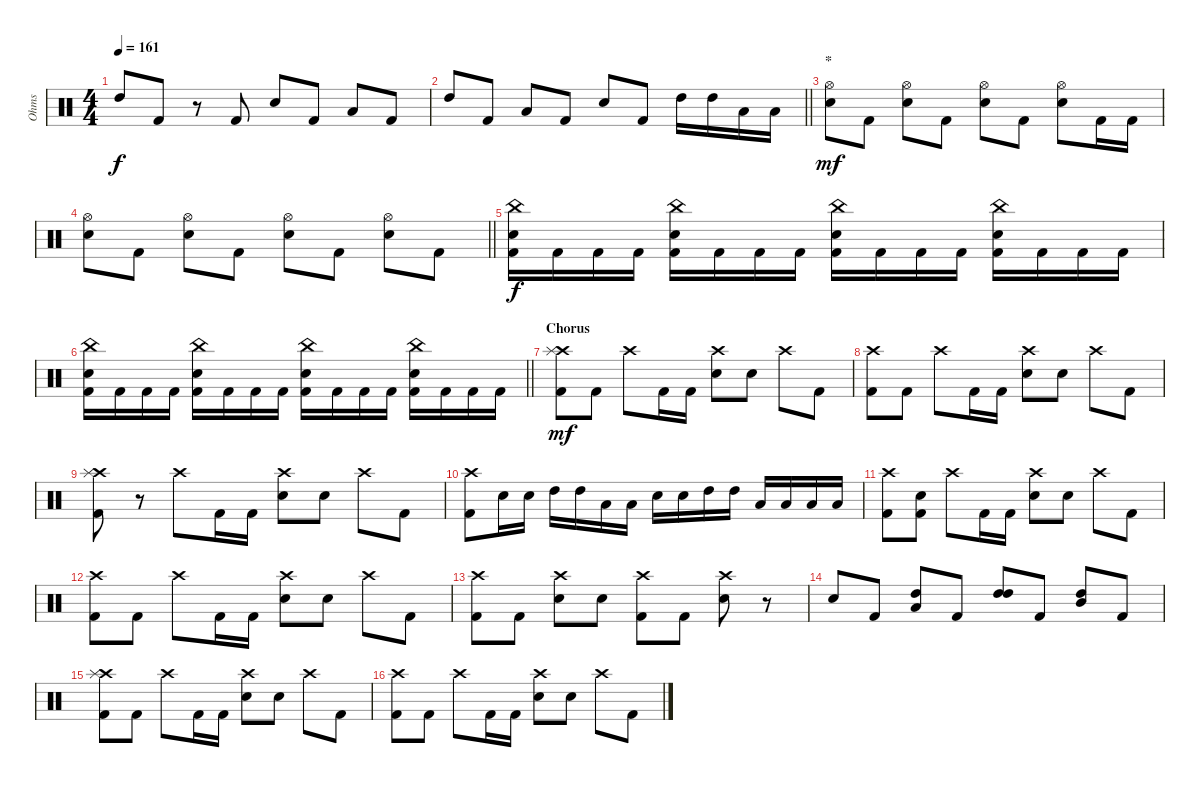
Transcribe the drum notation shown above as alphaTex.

\track ("Ohms" "Ohms") {instrument percussion}
\staff {score}
\articulation defaults
\ts (4 4)
\tempo 161
\clef neutral
\ks c "High Tom (hit)".8{dy f} "Kick (hit) 2".8
r.8 "Kick (hit) 2".8 "Snare (hit) 2".8 "Kick (hit) 2".8 "Low Tom (hit)".8 "Kick (hit) 2".8 |
\barLineRight lightlight "High Tom (hit)".8 "Kick (hit) 2".8 "Low Tom (hit)".8 "Kick (hit) 2".8 "Snare (hit) 2".8 "Kick (hit) 2".8 "High Tom (hit)".16 "High Tom (hit)".16 "Low Tom (hit)".16 "Low Tom (hit)".16
|
\section ("" "*")
("Hi-Hat (open)" "Snare (hit) 2").8{dy mf} "Kick (hit) 2".8 ("Hi-Hat (open)" "Snare (hit) 2").8 "Kick (hit) 2".8 ("Hi-Hat (open)" "Snare (hit) 2").8 "Kick (hit) 2".8 ("Hi-Hat (open)" "Snare (hit) 2").8 "Kick (hit) 2".16 "Kick (hit) 2".16 |
\barLineRight lightlight
("Hi-Hat (open)" "Snare (hit) 2").8 "Kick (hit) 2".8 ("Hi-Hat (open)" "Snare (hit) 2").8 "Kick (hit) 2".8 ("Hi-Hat (open)" "Snare (hit) 2").8 "Kick (hit) 2".8 ("Hi-Hat (open)" "Snare (hit) 2").8 "Kick (hit) 2".8 |
("China (hit)" "Snare (hit) 2" "Kick (hit) 2").16{dy f} "Kick (hit) 2".16 "Kick (hit) 2".16 "Kick (hit) 2".16 ("China (hit)" "Snare (hit) 2" "Kick (hit) 2").16 "Kick (hit) 2".16 "Kick (hit) 2".16 "Kick (hit) 2".16 ("China (hit)" "Snare (hit) 2" "Kick (hit) 2").16 "Kick (hit) 2".16 "Kick (hit) 2".16 "Kick (hit) 2".16 ("China (hit)" "Snare (hit) 2" "Kick (hit) 2").16 "Kick (hit) 2".16 "Kick (hit) 2".16 "Kick (hit) 2".16 |
\barLineRight lightlight
("China (hit)" "Snare (hit) 2" "Kick (hit) 2").16 "Kick (hit) 2".16 "Kick (hit) 2".16 "Kick (hit) 2".16 ("China (hit)" "Snare (hit) 2" "Kick (hit) 2").16 "Kick (hit) 2".16 "Kick (hit) 2".16 "Kick (hit) 2".16 ("China (hit)" "Snare (hit) 2" "Kick (hit) 2").16 "Kick (hit) 2".16 "Kick (hit) 2".16 "Kick (hit) 2".16 ("China (hit)" "Snare (hit) 2" "Kick (hit) 2").16 "Kick (hit) 2".16 "Kick (hit) 2".16 "Kick (hit) 2".16 |
\section ("" "Chorus")
("Crash high (hit)" "Splash (hit)" "Kick (hit) 2").8{dy mf} "Kick (hit) 2".8 "Crash high (hit)".8 "Kick (hit) 2".16 "Kick (hit) 2".16 ("Crash high (hit)" "Snare (hit) 2").8 "Snare (hit) 2".8 "Crash high (hit)".8 "Kick (hit) 2".8 |
("Crash high (hit)" "Kick (hit) 2").8 "Kick (hit) 2".8 "Crash high (hit)".8 "Kick (hit) 2".16 "Kick (hit) 2".16 ("Crash high (hit)" "Snare (hit) 2").8 "Snare (hit) 2".8 "Crash high (hit)".8 "Kick (hit) 2".8 |
("Crash high (hit)" "Splash (hit)" "Kick (hit) 2").8 r.8 "Crash high (hit)".8 "Kick (hit) 2".16 "Kick (hit) 2".16 ("Crash high (hit)" "Snare (hit) 2").8 "Snare (hit) 2".8 "Crash high (hit)".8 "Kick (hit) 2".8 |
("Crash high (hit)" "Kick (hit) 2").8 "Snare (hit) 2".16 "Snare (hit) 2".16 "High Tom (hit)".16 "High Tom (hit)".16 "Low Tom (hit)".16 "Low Tom (hit)".16 "Snare (hit) 2".16 "Snare (hit) 2".16 "High Tom (hit)".16 "High Tom (hit)".16 "Low Tom (hit)".16 "Low Tom (hit)".16 "Low Tom (hit)".16 "Low Tom (hit)".16 |
("Crash high (hit)" "Kick (hit) 2").8 ("Snare (hit) 2" "Kick (hit) 2").8 "Crash high (hit)".8 "Kick (hit) 2".16 "Kick (hit) 2".16 ("Crash high (hit)" "Snare (hit) 2").8 "Snare (hit) 2".8 "Crash high (hit)".8 "Kick (hit) 2".8 |
("Crash high (hit)" "Kick (hit) 2").8 "Kick (hit) 2".8 "Crash high (hit)".8 "Kick (hit) 2".16 "Kick (hit) 2".16 ("Crash high (hit)" "Snare (hit) 2").8 "Snare (hit) 2".8 "Crash high (hit)".8 "Kick (hit) 2".8 |
("Crash high (hit)" "Kick (hit) 2").8 "Kick (hit) 2".8 ("Crash high (hit)" "Snare (hit) 2").8 "Snare (hit) 2".8 ("Crash high (hit)" "Kick (hit) 2").8 "Kick (hit) 2".8 ("Crash high (hit)" "Snare (hit) 2").8 r.8 |
"Snare (hit) 2".8 "Kick (hit) 2".8 ("High Tom (hit)" "Low Tom (hit)").8 "Kick (hit) 2".8 ("High Tom (hit)" "High Tom (hit)").8 "Kick (hit) 2".8 ("High Tom (hit)" "Mid Tom (hit)").8 "Kick (hit) 2".8 |
("Crash high (hit)" "Splash (hit)" "Kick (hit) 2").8 "Kick (hit) 2".8 "Crash high (hit)".8 "Kick (hit) 2".16 "Kick (hit) 2".16 ("Crash high (hit)" "Snare (hit) 2").8 "Snare (hit) 2".8 "Crash high (hit)".8 "Kick (hit) 2".8 |
("Crash high (hit)" "Kick (hit) 2").8 "Kick (hit) 2".8 "Crash high (hit)".8 "Kick (hit) 2".16 "Kick (hit) 2".16 ("Crash high (hit)" "Snare (hit) 2").8 "Snare (hit) 2".8 "Crash high (hit)".8 "Kick (hit) 2".8
